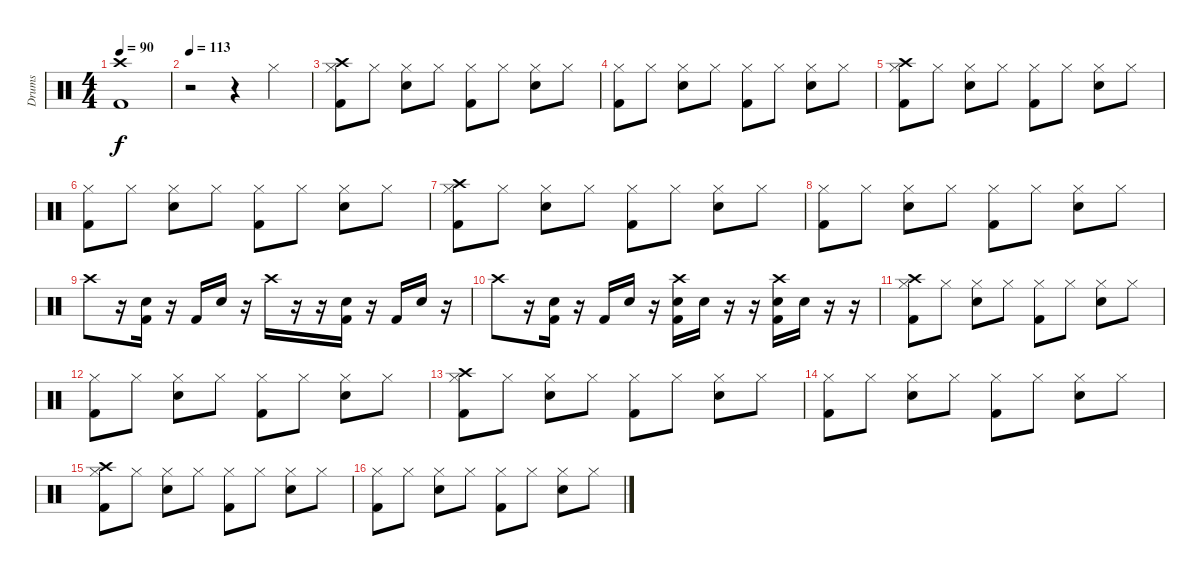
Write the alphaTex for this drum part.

\track ("Drums" "Drums") {instrument percussion}
\staff {score}
\articulation defaults
\ts (4 4)
\tempo 90
\clef neutral
\ks c
("Crash high (hit)" "Kick (hit) 2").1{dy f} |
\tempo 113
r.2{volume 12} r.4 "Hi-Hat (closed)".4 |
("Crash high (hit)" "Hi-Hat (closed)" "Kick (hit) 2").8 "Hi-Hat (closed)".8 ("Hi-Hat (closed)" "Snare (hit) 2").8 "Hi-Hat (closed)".8 ("Hi-Hat (closed)" "Kick (hit) 2").8 "Hi-Hat (closed)".8 ("Hi-Hat (closed)" "Snare (hit) 2").8 "Hi-Hat (closed)".8 |
("Hi-Hat (closed)" "Kick (hit) 2").8 "Hi-Hat (closed)".8 ("Hi-Hat (closed)" "Snare (hit) 2").8 "Hi-Hat (closed)".8 ("Hi-Hat (closed)" "Kick (hit) 2").8 "Hi-Hat (closed)".8 ("Hi-Hat (closed)" "Snare (hit) 2").8 "Hi-Hat (closed)".8 |
("Crash high (hit)" "Hi-Hat (closed)" "Kick (hit) 2").8 "Hi-Hat (closed)".8 ("Hi-Hat (closed)" "Snare (hit) 2").8 "Hi-Hat (closed)".8 ("Hi-Hat (closed)" "Kick (hit) 2").8 "Hi-Hat (closed)".8 ("Hi-Hat (closed)" "Snare (hit) 2").8 "Hi-Hat (closed)".8 |
("Hi-Hat (closed)" "Kick (hit) 2").8 "Hi-Hat (closed)".8 ("Hi-Hat (closed)" "Snare (hit) 2").8 "Hi-Hat (closed)".8 ("Hi-Hat (closed)" "Kick (hit) 2").8 "Hi-Hat (closed)".8 ("Hi-Hat (closed)" "Snare (hit) 2").8 "Hi-Hat (closed)".8 |
("Crash high (hit)" "Hi-Hat (closed)" "Kick (hit) 2").8 "Hi-Hat (closed)".8 ("Hi-Hat (closed)" "Snare (hit) 2").8 "Hi-Hat (closed)".8 ("Hi-Hat (closed)" "Kick (hit) 2").8 "Hi-Hat (closed)".8 ("Hi-Hat (closed)" "Snare (hit) 2").8 "Hi-Hat (closed)".8 |
("Hi-Hat (closed)" "Kick (hit) 2").8 "Hi-Hat (closed)".8 ("Hi-Hat (closed)" "Snare (hit) 2").8 "Hi-Hat (closed)".8 ("Hi-Hat (closed)" "Kick (hit) 2").8 "Hi-Hat (closed)".8 ("Hi-Hat (closed)" "Snare (hit) 2").8 "Hi-Hat (closed)".8 |
"Crash high (hit)".8 r.16 ("Snare (hit) 2" "Kick (hit) 2").16 r.16 "Kick (hit) 2".16 "Snare (hit) 2".16 r.16 "Crash high (hit)".16 r.16 r.16 ("Snare (hit) 2" "Kick (hit) 2").16 r.16 "Kick (hit) 2".16 "Snare (hit) 2".16 r.16 |
"Crash high (hit)".8 r.16 ("Snare (hit) 2" "Kick (hit) 2").16 r.16 "Kick (hit) 2".16 "Snare (hit) 2".16 r.16 ("Crash high (hit)" "Snare (hit) 2" "Kick (hit) 2").16 "Snare (hit) 2".16 r.16 r.16 ("Crash high (hit)" "Snare (hit) 2" "Kick (hit) 2").16 "Snare (hit) 2".16 r.16 r.16 |
("Crash high (hit)" "Hi-Hat (closed)" "Kick (hit) 2").8 "Hi-Hat (closed)".8 ("Hi-Hat (closed)" "Snare (hit) 2").8 "Hi-Hat (closed)".8 ("Hi-Hat (closed)" "Kick (hit) 2").8 "Hi-Hat (closed)".8 ("Hi-Hat (closed)" "Snare (hit) 2").8 "Hi-Hat (closed)".8 |
("Hi-Hat (closed)" "Kick (hit) 2").8 "Hi-Hat (closed)".8 ("Hi-Hat (closed)" "Snare (hit) 2").8 "Hi-Hat (closed)".8 ("Hi-Hat (closed)" "Kick (hit) 2").8 "Hi-Hat (closed)".8 ("Hi-Hat (closed)" "Snare (hit) 2").8 "Hi-Hat (closed)".8 |
("Crash high (hit)" "Hi-Hat (closed)" "Kick (hit) 2").8 "Hi-Hat (closed)".8 ("Hi-Hat (closed)" "Snare (hit) 2").8 "Hi-Hat (closed)".8 ("Hi-Hat (closed)" "Kick (hit) 2").8 "Hi-Hat (closed)".8 ("Hi-Hat (closed)" "Snare (hit) 2").8 "Hi-Hat (closed)".8 |
("Hi-Hat (closed)" "Kick (hit) 2").8 "Hi-Hat (closed)".8 ("Hi-Hat (closed)" "Snare (hit) 2").8 "Hi-Hat (closed)".8 ("Hi-Hat (closed)" "Kick (hit) 2").8 "Hi-Hat (closed)".8 ("Hi-Hat (closed)" "Snare (hit) 2").8 "Hi-Hat (closed)".8 |
("Crash high (hit)" "Hi-Hat (closed)" "Kick (hit) 2").8 "Hi-Hat (closed)".8 ("Hi-Hat (closed)" "Snare (hit) 2").8 "Hi-Hat (closed)".8 ("Hi-Hat (closed)" "Kick (hit) 2").8 "Hi-Hat (closed)".8 ("Hi-Hat (closed)" "Snare (hit) 2").8 "Hi-Hat (closed)".8 |
("Hi-Hat (closed)" "Kick (hit) 2").8 "Hi-Hat (closed)".8 ("Hi-Hat (closed)" "Snare (hit) 2").8 "Hi-Hat (closed)".8 ("Hi-Hat (closed)" "Kick (hit) 2").8 "Hi-Hat (closed)".8 ("Hi-Hat (closed)" "Snare (hit) 2").8 "Hi-Hat (closed)".8
